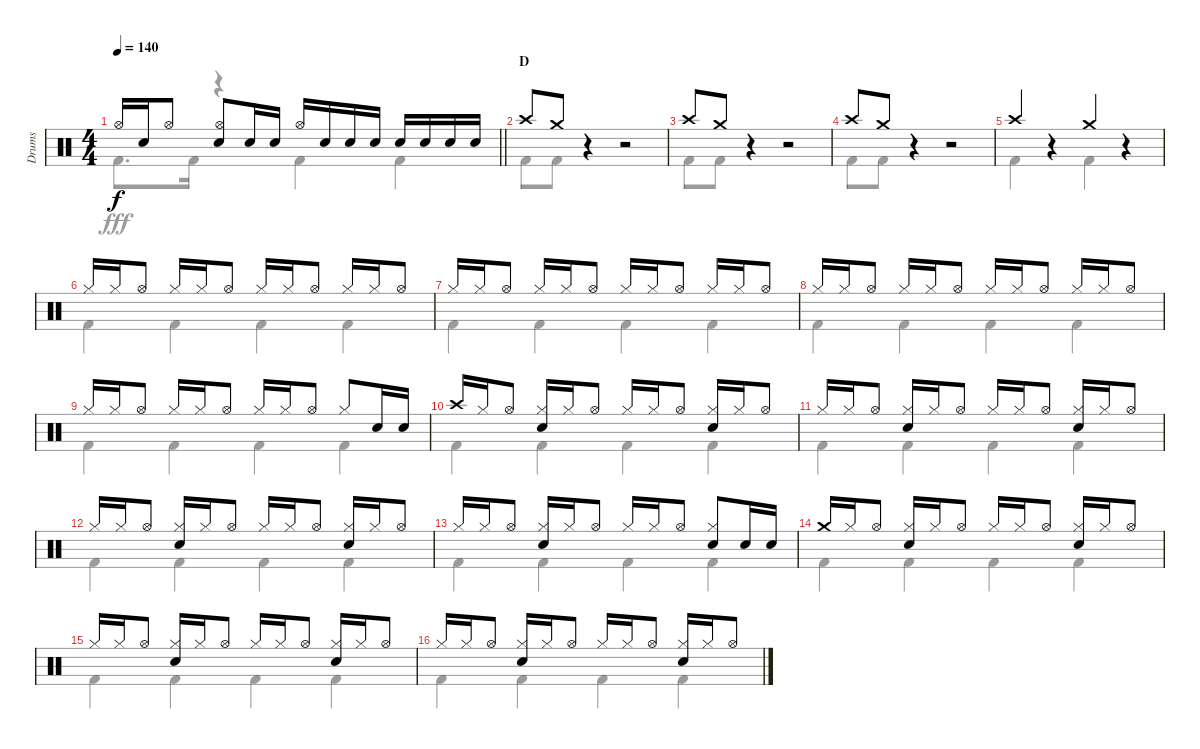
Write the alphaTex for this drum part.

\track ("Drums" "Drums") {instrument percussion}
\staff {score}
\articulation defaults
\voice
\ts (4 4)
\tempo 140
\clef neutral
\barLineRight lightlight
\ks c "Hi-Hat (open)".16{dy f} "Snare (hit) 2".16 "Hi-Hat (open)".8
("Hi-Hat (open)" "Snare (hit) 2").8 "Snare (hit) 2".16 "Snare (hit) 2".16 "Hi-Hat (open)".16 "Snare (hit) 2".16 "Snare (hit) 2".16 "Snare (hit) 2".16 "Snare (hit) 2".16 "Snare (hit) 2".16 "Snare (hit) 2".16 "Snare (hit) 2".16 |
\section ("" "D")
"Crash high (hit)".8 "Crash medium (hit)".8 r.4 r.2 |
"Crash high (hit)".8 "Crash medium (hit)".8 r.4 r.2 |
"Crash high (hit)".8 "Crash medium (hit)".8 r.4 r.2 |
"Crash high (hit)".4 r.4 "Crash medium (hit)".4 r.4 |
"Hi-Hat (closed)".16 "Hi-Hat (closed)".16 "Hi-Hat (open)".8 "Hi-Hat (closed)".16 "Hi-Hat (closed)".16 "Hi-Hat (open)".8 "Hi-Hat (closed)".16 "Hi-Hat (closed)".16 "Hi-Hat (open)".8 "Hi-Hat (closed)".16 "Hi-Hat (closed)".16 "Hi-Hat (open)".8 |
"Hi-Hat (closed)".16 "Hi-Hat (closed)".16 "Hi-Hat (open)".8 "Hi-Hat (closed)".16 "Hi-Hat (closed)".16 "Hi-Hat (open)".8 "Hi-Hat (closed)".16 "Hi-Hat (closed)".16 "Hi-Hat (open)".8 "Hi-Hat (closed)".16 "Hi-Hat (closed)".16 "Hi-Hat (open)".8 |
"Hi-Hat (closed)".16 "Hi-Hat (closed)".16 "Hi-Hat (open)".8 "Hi-Hat (closed)".16 "Hi-Hat (closed)".16 "Hi-Hat (open)".8 "Hi-Hat (closed)".16 "Hi-Hat (closed)".16 "Hi-Hat (open)".8 "Hi-Hat (closed)".16 "Hi-Hat (closed)".16 "Hi-Hat (open)".8 |
"Hi-Hat (closed)".16 "Hi-Hat (closed)".16 "Hi-Hat (open)".8 "Hi-Hat (closed)".16 "Hi-Hat (closed)".16 "Hi-Hat (open)".8 "Hi-Hat (closed)".16 "Hi-Hat (closed)".16 "Hi-Hat (open)".8 "Hi-Hat (closed)".8 "Snare (hit) 2".16 "Snare (hit) 2".16 |
"Crash high (hit)".16 "Hi-Hat (closed)".16 "Hi-Hat (open)".8 ("Hi-Hat (closed)" "Snare (hit) 2").16 "Hi-Hat (closed)".16 "Hi-Hat (open)".8 "Hi-Hat (closed)".16 "Hi-Hat (closed)".16 "Hi-Hat (open)".8 ("Hi-Hat (closed)" "Snare (hit) 2").16 "Hi-Hat (closed)".16 "Hi-Hat (open)".8 |
"Hi-Hat (closed)".16 "Hi-Hat (closed)".16 "Hi-Hat (open)".8 ("Hi-Hat (closed)" "Snare (hit) 2").16 "Hi-Hat (closed)".16 "Hi-Hat (open)".8 "Hi-Hat (closed)".16 "Hi-Hat (closed)".16 "Hi-Hat (open)".8 ("Hi-Hat (closed)" "Snare (hit) 2").16 "Hi-Hat (closed)".16 "Hi-Hat (open)".8 |
"Hi-Hat (closed)".16 "Hi-Hat (closed)".16 "Hi-Hat (open)".8 ("Hi-Hat (closed)" "Snare (hit) 2").16 "Hi-Hat (closed)".16 "Hi-Hat (open)".8 "Hi-Hat (closed)".16 "Hi-Hat (closed)".16 "Hi-Hat (open)".8 ("Hi-Hat (closed)" "Snare (hit) 2").16 "Hi-Hat (closed)".16 "Hi-Hat (open)".8 |
"Hi-Hat (closed)".16 "Hi-Hat (closed)".16 "Hi-Hat (open)".8 ("Hi-Hat (closed)" "Snare (hit) 2").16 "Hi-Hat (closed)".16 "Hi-Hat (open)".8 "Hi-Hat (closed)".16 "Hi-Hat (closed)".16 "Hi-Hat (open)".8 ("Hi-Hat (closed)" "Snare (hit) 2").8 "Snare (hit) 2".16 "Snare (hit) 2".16 |
"Crash medium (hit)".16 "Hi-Hat (closed)".16 "Hi-Hat (open)".8 ("Hi-Hat (closed)" "Snare (hit) 2").16 "Hi-Hat (closed)".16 "Hi-Hat (open)".8 "Hi-Hat (closed)".16 "Hi-Hat (closed)".16 "Hi-Hat (open)".8 ("Hi-Hat (closed)" "Snare (hit) 2").16 "Hi-Hat (closed)".16 "Hi-Hat (open)".8 |
"Hi-Hat (closed)".16 "Hi-Hat (closed)".16 "Hi-Hat (open)".8 ("Hi-Hat (closed)" "Snare (hit) 2").16 "Hi-Hat (closed)".16 "Hi-Hat (open)".8 "Hi-Hat (closed)".16 "Hi-Hat (closed)".16 "Hi-Hat (open)".8 ("Hi-Hat (closed)" "Snare (hit) 2").16 "Hi-Hat (closed)".16 "Hi-Hat (open)".8 |
"Hi-Hat (closed)".16 "Hi-Hat (closed)".16 "Hi-Hat (open)".8 ("Hi-Hat (closed)" "Snare (hit) 2").16 "Hi-Hat (closed)".16 "Hi-Hat (open)".8 "Hi-Hat (closed)".16 "Hi-Hat (closed)".16 "Hi-Hat (open)".8 ("Hi-Hat (closed)" "Snare (hit) 2").16 "Hi-Hat (closed)".16 "Hi-Hat (open)".8
\voice
\clef neutral
\ottava regular
\simile none
\barLineRight lightlight
\ks c "Kick (hit) 2".8{d dy fff} "Kick (hit) 2".16
r.4 "Kick (hit) 2".4 "Kick (hit) 2".4 |
"Kick (hit) 2".8 "Kick (hit) 2".8 r.4 r.2 |
"Kick (hit) 2".8 "Kick (hit) 2".8 r.4 r.2 |
"Kick (hit) 2".8 "Kick (hit) 2".8 r.4 r.2 |
"Kick (hit) 2".4 r.4 "Kick (hit) 2".4 r.4 |
"Kick (hit) 2".4 "Kick (hit) 2".4 "Kick (hit) 2".4 "Kick (hit) 2".4 |
"Kick (hit) 2".4 "Kick (hit) 2".4 "Kick (hit) 2".4 "Kick (hit) 2".4 |
"Kick (hit) 2".4 "Kick (hit) 2".4 "Kick (hit) 2".4 "Kick (hit) 2".4 |
"Kick (hit) 2".4 "Kick (hit) 2".4 "Kick (hit) 2".4 "Kick (hit) 2".4 |
"Kick (hit) 2".4 "Kick (hit) 2".4 "Kick (hit) 2".4 "Kick (hit) 2".4 |
"Kick (hit) 2".4 "Kick (hit) 2".4 "Kick (hit) 2".4 "Kick (hit) 2".4 |
"Kick (hit) 2".4 "Kick (hit) 2".4 "Kick (hit) 2".4 "Kick (hit) 2".4 |
"Kick (hit) 2".4 "Kick (hit) 2".4 "Kick (hit) 2".4 "Kick (hit) 2".4 |
"Kick (hit) 2".4 "Kick (hit) 2".4 "Kick (hit) 2".4 "Kick (hit) 2".4 |
"Kick (hit) 2".4 "Kick (hit) 2".4 "Kick (hit) 2".4 "Kick (hit) 2".4 |
"Kick (hit) 2".4 "Kick (hit) 2".4 "Kick (hit) 2".4 "Kick (hit) 2".4
